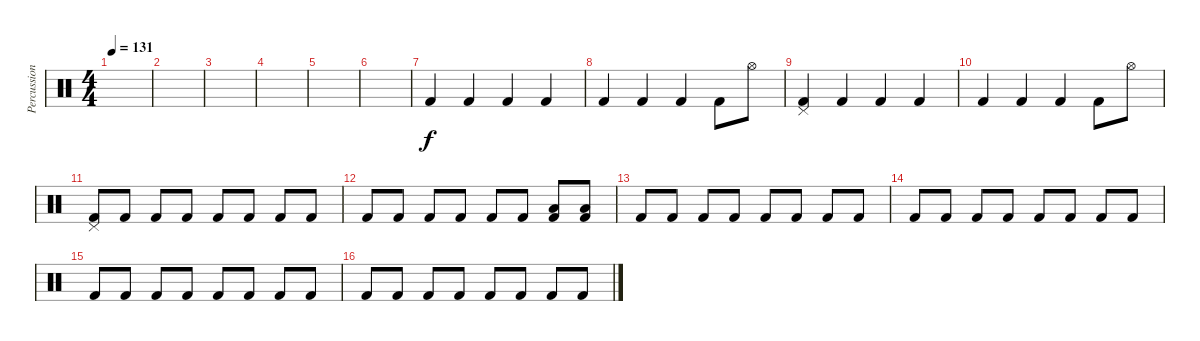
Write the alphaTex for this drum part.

\track ("Percussion" "Percussion") {instrument percussion}
\staff {score}
\articulation defaults
\ts (4 4)
\tempo 131
\clef neutral
\ks c
|
|
|
|
|
|
"Kick (hit) 2".4 "Kick (hit) 2".4 "Kick (hit) 2".4 "Kick (hit) 2".4 |
"Kick (hit) 2".4 "Kick (hit) 2".4 "Kick (hit) 2".4 "Kick (hit) 2".8 "Hi-Hat (open)".8 |
("Pedal Hi-Hat (hit)" "Kick (hit) 2").4 "Kick (hit) 2".4 "Kick (hit) 2".4 "Kick (hit) 2".4 |
"Kick (hit) 2".4 "Kick (hit) 2".4 "Kick (hit) 2".4 "Kick (hit) 2".8 "Hi-Hat (open)".8 |
("Pedal Hi-Hat (hit)" "Kick (hit) 2").8 "Kick (hit) 2".8 "Kick (hit) 2".8 "Kick (hit) 2".8 "Kick (hit) 2".8 "Kick (hit) 2".8 "Kick (hit) 2".8 "Kick (hit) 2".8 |
"Kick (hit) 2".8 "Kick (hit) 2".8 "Kick (hit) 2".8 "Kick (hit) 2".8 "Kick (hit) 2".8 "Kick (hit) 2".8 ("Low Floor Tom (hit)" "Kick (hit) 2").8 ("Low Floor Tom (hit)" "Kick (hit) 2").8 |
"Kick (hit) 2".8 "Kick (hit) 2".8 "Kick (hit) 2".8 "Kick (hit) 2".8 "Kick (hit) 2".8 "Kick (hit) 2".8 "Kick (hit) 2".8 "Kick (hit) 2".8 |
"Kick (hit) 2".8 "Kick (hit) 2".8 "Kick (hit) 2".8 "Kick (hit) 2".8 "Kick (hit) 2".8 "Kick (hit) 2".8 "Kick (hit) 2".8 "Kick (hit) 2".8 |
"Kick (hit) 2".8 "Kick (hit) 2".8 "Kick (hit) 2".8 "Kick (hit) 2".8 "Kick (hit) 2".8 "Kick (hit) 2".8 "Kick (hit) 2".8 "Kick (hit) 2".8 |
"Kick (hit) 2".8 "Kick (hit) 2".8 "Kick (hit) 2".8 "Kick (hit) 2".8 "Kick (hit) 2".8 "Kick (hit) 2".8 "Kick (hit) 2".8 "Kick (hit) 2".8
